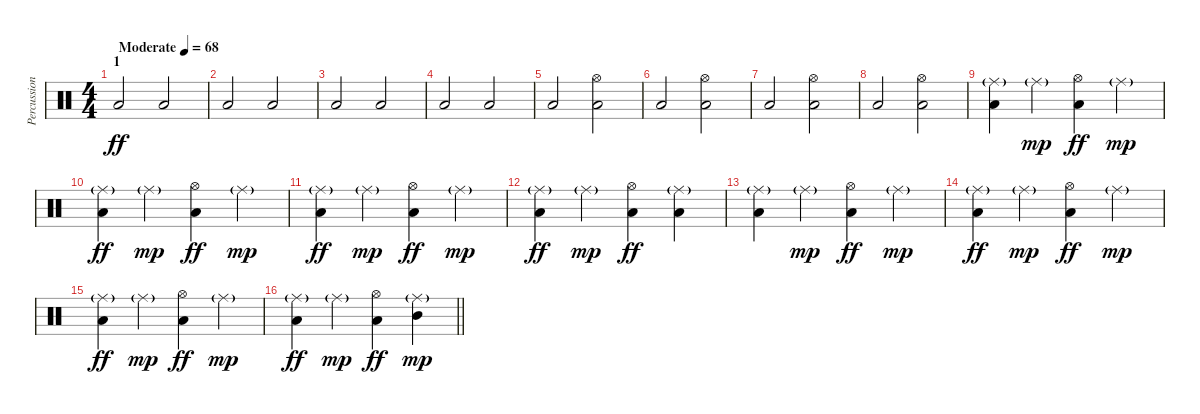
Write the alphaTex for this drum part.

\track ("Percussion" "Percussion") {instrument percussion}
\staff {score}
\articulation defaults
\ts (4 4)
\section ("" "1")
\tempo (68 "Moderate")
\clef neutral
\ks c "Low Floor Tom (hit)".2{dy ff} "Low Floor Tom (hit)".2
|
"Low Floor Tom (hit)".2 "Low Floor Tom (hit)".2 |
"Low Floor Tom (hit)".2 "Low Floor Tom (hit)".2 |
"Low Floor Tom (hit)".2 "Low Floor Tom (hit)".2 |
"Low Floor Tom (hit)".2 ("Hi-Hat (open)" "Low Floor Tom (hit)").2 |
"Low Floor Tom (hit)".2 ("Hi-Hat (open)" "Low Floor Tom (hit)").2 |
"Low Floor Tom (hit)".2 ("Hi-Hat (open)" "Low Floor Tom (hit)").2 |
"Low Floor Tom (hit)".2 ("Hi-Hat (open)" "Low Floor Tom (hit)").2 |
("Ride (middle)"{g} "Low Floor Tom (hit)").4 "Ride (middle)"{g}.4{dy mp} ("Hi-Hat (open)" "Low Floor Tom (hit)").4{dy ff} "Ride (middle)"{g}.4{dy mp} |
("Ride (middle)"{g} "Low Floor Tom (hit)").4{dy ff} "Ride (middle)"{g}.4{dy mp} ("Hi-Hat (open)" "Low Floor Tom (hit)").4{dy ff} "Ride (middle)"{g}.4{dy mp} |
("Ride (middle)"{g} "Low Floor Tom (hit)").4{dy ff} "Ride (middle)"{g}.4{dy mp} ("Hi-Hat (open)" "Low Floor Tom (hit)").4{dy ff} "Ride (middle)"{g}.4{dy mp} |
("Ride (middle)"{g} "Low Floor Tom (hit)").4{dy ff} "Ride (middle)"{g}.4{dy mp} ("Hi-Hat (open)" "Low Floor Tom (hit)").4{dy ff} ("Ride (middle)"{g} "Low Floor Tom (hit)").4 |
("Ride (middle)"{g} "Low Floor Tom (hit)").4 "Ride (middle)"{g}.4{dy mp} ("Hi-Hat (open)" "Low Floor Tom (hit)").4{dy ff} "Ride (middle)"{g}.4{dy mp} |
("Ride (middle)"{g} "Low Floor Tom (hit)").4{dy ff} "Ride (middle)"{g}.4{dy mp} ("Hi-Hat (open)" "Low Floor Tom (hit)").4{dy ff} "Ride (middle)"{g}.4{dy mp} |
("Ride (middle)"{g} "Low Floor Tom (hit)").4{dy ff} "Ride (middle)"{g}.4{dy mp} ("Hi-Hat (open)" "Low Floor Tom (hit)").4{dy ff} "Ride (middle)"{g}.4{dy mp} |
\barLineRight lightlight
("Ride (middle)"{g} "Low Floor Tom (hit)").4{dy ff} "Ride (middle)"{g}.4{dy mp} ("Hi-Hat (open)" "Low Floor Tom (hit)").4{dy ff} ("Ride (middle)"{g} "Mid Tom (hit)").4{dy mp}
